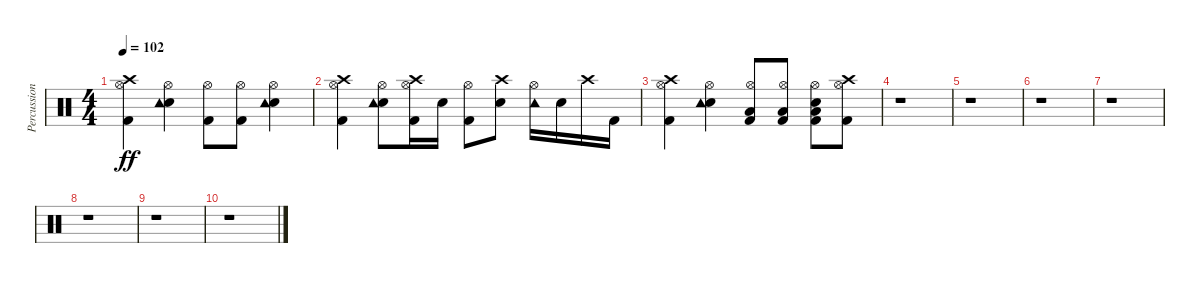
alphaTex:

\track ("Percussions" "Percussion") {instrument percussion}
\staff {score}
\articulation defaults
\ts (4 4)
\tempo 102
\clef neutral
\ks c
("Kick (hit) 2" "Hi-Hat (open)" "Crash high (hit)").4{dy ff} ("Snare (hit) 2" "Hi-Hat (open)" "Tambourine (hit)").4 ("Kick (hit) 2" "Hi-Hat (open)").8 ("Kick (hit) 2" "Hi-Hat (open)").8 ("Snare (hit) 2" "Hi-Hat (open)" "Tambourine (hit)").4 |
("Kick (hit) 2" "Hi-Hat (open)" "Crash high (hit)").4 ("Snare (hit) 2" "Hi-Hat (open)" "Tambourine (hit)").8 ("Kick (hit) 2" "Hi-Hat (open)" "Crash high (hit)").16 "Snare (hit) 2".16 ("Kick (hit) 2" "Hi-Hat (open)").8 ("Snare (hit) 2" "Crash high (hit)").8 ("Hi-Hat (open)" "Tambourine (hit)").16 "Snare (hit) 2".16 "Crash high (hit)".16 "Kick (hit) 2".16 |
("Kick (hit) 2" "Hi-Hat (open)" "Crash high (hit)").4 ("Snare (hit) 2" "Hi-Hat (open)" "Tambourine (hit)").4 ("Kick (hit) 2" "Low Floor Tom (hit)" "Hi-Hat (open)").8 ("Kick (hit) 2" "Low Floor Tom (hit)" "Hi-Hat (open)").8 ("Kick (hit) 2" "Snare (hit) 2" "Low Floor Tom (hit)" "Hi-Hat (open)").8 ("Kick (hit) 2" "Hi-Hat (open)" "Crash high (hit)").8 |
r.1 |
r.1 |
r.1 |
r.1 |
r.1 |
r.1 |
r.1
